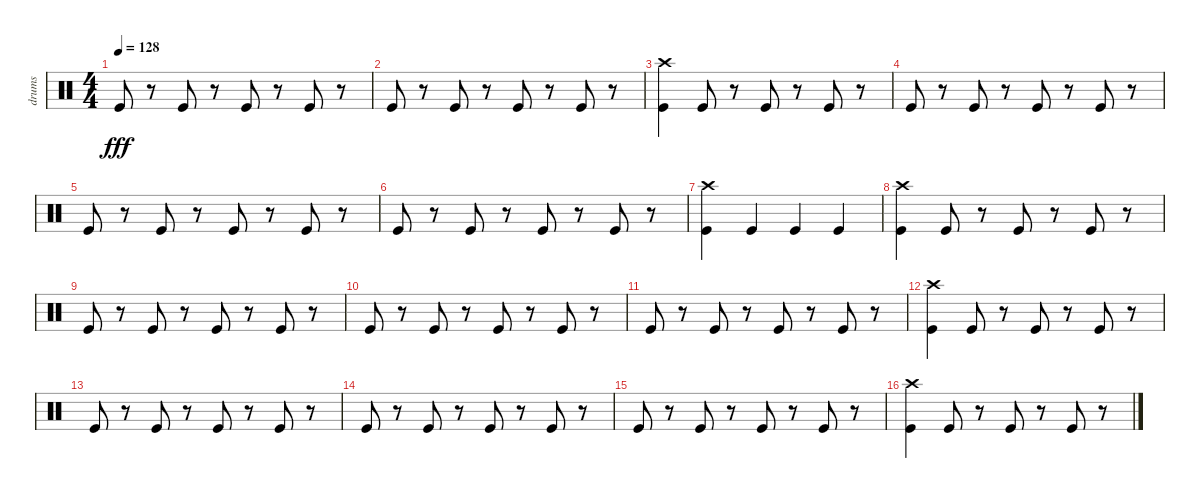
\track ("drums" "drums") {instrument percussion}
\staff {score}
\articulation defaults
\ts (4 4)
\tempo 128
\clef neutral
\ks c "Kick (hit)".8{dy fff}
r.8 "Kick (hit)".8 r.8 "Kick (hit)".8 r.8 "Kick (hit)".8 r.8 |
"Kick (hit)".8 r.8 "Kick (hit)".8 r.8 "Kick (hit)".8 r.8 "Kick (hit)".8 r.8 |
("Kick (hit)" "Crash high (hit)").4 "Kick (hit)".8 r.8 "Kick (hit)".8 r.8 "Kick (hit)".8 r.8 |
"Kick (hit)".8 r.8 "Kick (hit)".8 r.8 "Kick (hit)".8 r.8 "Kick (hit)".8 r.8 |
"Kick (hit)".8 r.8 "Kick (hit)".8 r.8 "Kick (hit)".8 r.8 "Kick (hit)".8 r.8 |
"Kick (hit)".8 r.8 "Kick (hit)".8 r.8 "Kick (hit)".8 r.8 "Kick (hit)".8 r.8 |
("Kick (hit)" "Crash high (hit)").4 "Kick (hit)".4 "Kick (hit)".4 "Kick (hit)".4 |
("Kick (hit)" "Crash high (hit)").4 "Kick (hit)".8 r.8 "Kick (hit)".8 r.8 "Kick (hit)".8 r.8 |
"Kick (hit)".8 r.8 "Kick (hit)".8 r.8 "Kick (hit)".8 r.8 "Kick (hit)".8 r.8 |
"Kick (hit)".8 r.8 "Kick (hit)".8 r.8 "Kick (hit)".8 r.8 "Kick (hit)".8 r.8 |
"Kick (hit)".8 r.8 "Kick (hit)".8 r.8 "Kick (hit)".8 r.8 "Kick (hit)".8 r.8 |
("Kick (hit)" "Crash high (hit)").4 "Kick (hit)".8 r.8 "Kick (hit)".8 r.8 "Kick (hit)".8 r.8 |
"Kick (hit)".8 r.8 "Kick (hit)".8 r.8 "Kick (hit)".8 r.8 "Kick (hit)".8 r.8 |
"Kick (hit)".8 r.8 "Kick (hit)".8 r.8 "Kick (hit)".8 r.8 "Kick (hit)".8 r.8 |
"Kick (hit)".8 r.8 "Kick (hit)".8 r.8 "Kick (hit)".8 r.8 "Kick (hit)".8 r.8 |
("Kick (hit)" "Crash high (hit)").4 "Kick (hit)".8 r.8 "Kick (hit)".8 r.8 "Kick (hit)".8 r.8
